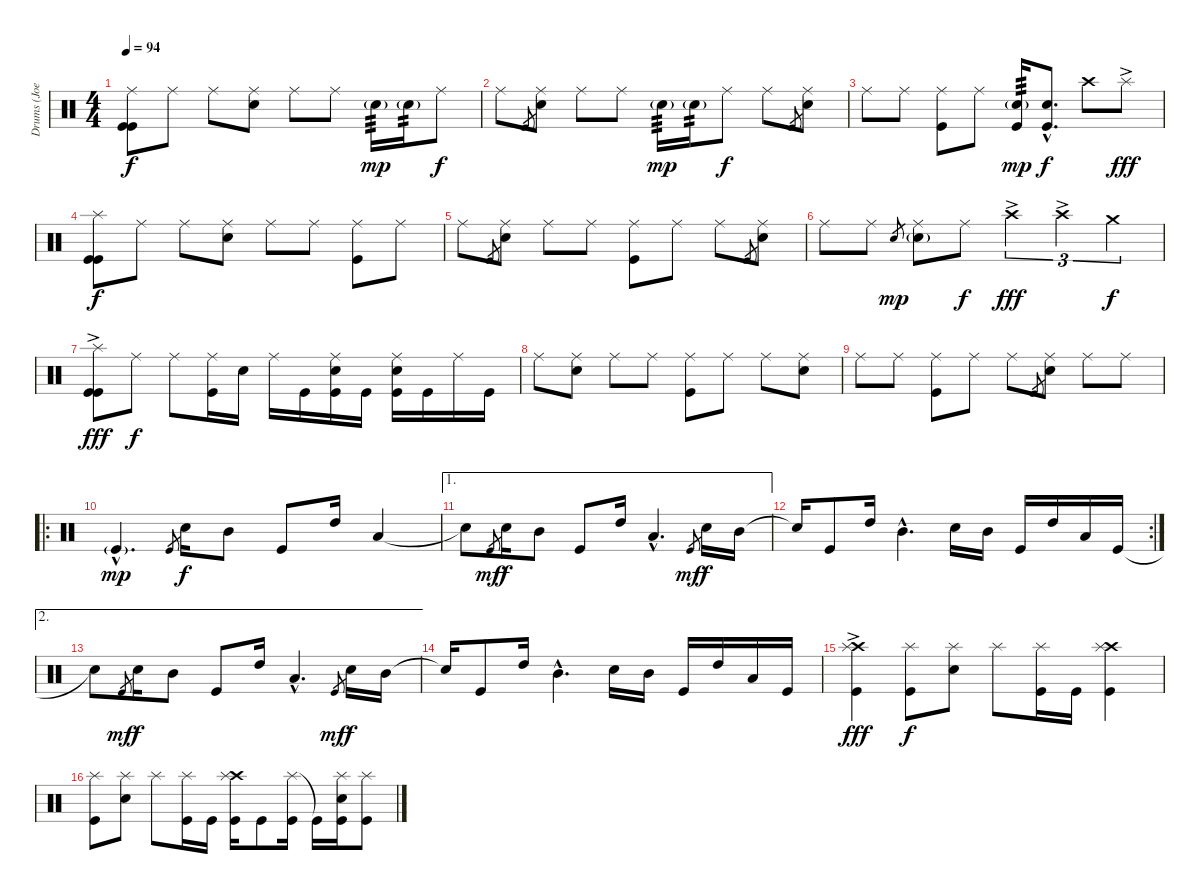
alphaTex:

\track ("Drums (Joe)" "Drums (Joe") {instrument percussion}
\staff {score}
\articulation defaults
\ts (4 4)
\tempo 94
\clef neutral
\ks c
("Ride (middle)" "Kick (hit)" "Kick (hit)").8{dy f} "Ride (middle)".8 "Ride (middle)".8 ("Ride (middle)" "Snare (hit) 2").8 "Ride (middle)".8 "Ride (middle)".8 "Snare (hit) 2"{g}.16{tp 3 dy mp} "Snare (hit) 2"{g}.16{tp 2} "Ride (middle)".8{dy f} |
"Ride (middle)".8 "Kick (hit)".8{gr} ("Ride (middle)" "Snare (hit) 2").8 "Ride (middle)".8 "Ride (middle)".8 "Snare (hit) 2"{g}.16{tp 3 dy mp} "Snare (hit) 2"{g}.16{tp 2} "Ride (middle)".8{dy f} "Ride (middle)".8 "Kick (hit)".8{gr} ("Ride (middle)" "Snare (hit) 2").8 |
"Ride (middle)".8 "Ride (middle)".8 ("Ride (middle)" "Kick (hit)").8 "Ride (middle)".8 ("Snare (hit) 2"{g} "Kick (hit)").16{tp 3 dy mp} ("Snare (hit) 2"{hac} "Kick (hit)"{hac}).8{d dy f} "Crash high (hit)".8 "Splash (hit)"{ac}.8{dy fff} |
("Splash (hit)" "Kick (hit)" "Kick (hit)").8{dy f} "Ride (middle)".8 "Ride (middle)".8 ("Ride (middle)" "Snare (hit) 2").8 "Ride (middle)".8 "Ride (middle)".8 ("Ride (middle)" "Kick (hit)").8 "Ride (middle)".8 |
"Ride (middle)".8 "Kick (hit)".8{gr} ("Ride (middle)" "Snare (hit) 2").8 "Ride (middle)".8 "Ride (middle)".8 ("Ride (middle)" "Kick (hit)").8 "Ride (middle)".8 "Ride (middle)".8 "Kick (hit)".8{gr} ("Ride (middle)" "Snare (hit) 2").8 |
"Ride (middle)".8 "Ride (middle)".8 "Snare (hit) 2".8{gr dy mp} ("Ride (middle)" "Snare (hit) 2"{g}).8 "Ride (middle)".8{dy f} "Crash high (hit)"{ac}.4{tu (3 2) dy fff} "Crash high (hit)"{ac}.4{tu (3 2)} "Crash medium (hit)".4{tu (3 2) dy f} |
("Splash (hit)"{ac} "Kick (hit)" "Kick (hit)").8{dy fff} "Ride (middle)".8{dy f} "Ride (middle)".8 ("Ride (middle)" "Kick (hit)").16 "Snare (hit) 2".16 "Ride (middle)".16 "Kick (hit)".16 ("Ride (middle)" "Snare (hit) 2" "Kick (hit)").16 "Kick (hit)".16 ("Ride (middle)" "Snare (hit) 2" "Kick (hit)").16 "Kick (hit)".16 "Ride (middle)".16 "Kick (hit)".16 |
"Ride (middle)".8 ("Ride (middle)" "Snare (hit) 2").8 "Ride (middle)".8 "Ride (middle)".8 ("Ride (middle)" "Kick (hit)").8 "Ride (middle)".8 "Ride (middle)".8 ("Ride (middle)" "Snare (hit) 2").8 |
"Ride (middle)".8 "Ride (middle)".8 ("Ride (middle)" "Kick (hit)").8 "Ride (middle)".8 "Ride (middle)".8 "Kick (hit)".8{gr} ("Ride (middle)" "Snare (hit) 2").8 "Ride (middle)".8 "Ride (middle)".8 |
\ro "Kick (hit)"{g hac}.4{d dy mp} "Kick (hit)".8{gr} "Snare (hit) 2".16{dy f} "Mid Tom (hit)".8 "Kick (hit)".8 "High Tom (hit)".16 "Low Tom (hit)".4
|
\ae 1 "Snare (hit)"{t}.8 "Kick (hit)".8{gr dy mf} "Snare (hit) 2".16{dy f} "Mid Tom (hit)".8 "Kick (hit)".8 "High Tom (hit)".16 "Low Tom (hit)"{hac}.4{d} "Kick (hit)".8{gr dy mf} "Snare (hit) 2".16{dy f} "Mid Tom (hit)".16
|
\rc 2 "Snare (hit)"{t}.16 "Kick (hit)".8 "High Tom (hit)".16 "Mid Tom (hit)"{hac}.4{d} "Snare (hit) 2".16 "Mid Tom (hit)".16 "Kick (hit)".16 "High Tom (hit)".16 "Low Tom (hit)".16 "Kick (hit)".16
|
\ae 2 "Snare (hit)"{t}.8 "Kick (hit)".8{gr dy mf} "Snare (hit) 2".16{dy f} "Mid Tom (hit)".8 "Kick (hit)".8 "High Tom (hit)".16 "Low Tom (hit)"{hac}.4{d} "Kick (hit)".8{gr dy mf} "Snare (hit) 2".16{dy f} "Mid Tom (hit)".16
|
"Snare (hit)"{t}.16 "Kick (hit)".8 "High Tom (hit)".16 "Mid Tom (hit)"{hac}.4{d} "Snare (hit) 2".16 "Mid Tom (hit)".16 "Kick (hit)".16 "High Tom (hit)".16 "Low Tom (hit)".16 "Kick (hit)".16 |
("Crash high (hit)" "Splash (hit)"{ac} "Kick (hit)").4{dy fff} ("Splash (hit)" "Kick (hit)").8{dy f} ("Splash (hit)" "Snare (hit) 2").8 "Splash (hit)".8 ("Splash (hit)" "Kick (hit)").16 "Kick (hit)".16 ("Crash high (hit)" "Splash (hit)" "Kick (hit)").4 |
("Splash (hit)" "Kick (hit)").8 ("Splash (hit)" "Snare (hit) 2").8 "Splash (hit)".8 ("Splash (hit)" "Kick (hit)").16 "Kick (hit)".16 ("Crash high (hit)" "Splash (hit)" "Kick (hit)").16 "Kick (hit)".8 ("Splash (hit)" "Kick (hit)").16 "Kick (hit)"{t}.16 ("Splash (hit)" "Snare (hit) 2" "Kick (hit)").16 ("Splash (hit)" "Kick (hit)").8
